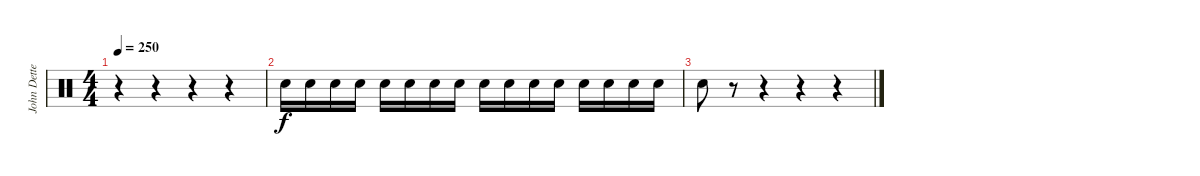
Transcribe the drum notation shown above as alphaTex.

\track ("John Dette" "John Dette") {instrument percussion}
\staff {score}
\articulation defaults
\ts (4 4)
\tempo 250
\clef neutral
\ks c
r.4{dy f} r.4 r.4 r.4 |
"Snare (hit) 2".16 "Snare (hit) 2".16 "Snare (hit) 2".16 "Snare (hit) 2".16 "Snare (hit) 2".16 "Snare (hit) 2".16 "Snare (hit) 2".16 "Snare (hit) 2".16 "Snare (hit) 2".16 "Snare (hit) 2".16 "Snare (hit) 2".16 "Snare (hit) 2".16 "Snare (hit) 2".16 "Snare (hit) 2".16 "Snare (hit) 2".16 "Snare (hit) 2".16 |
"Snare (hit) 2".8 r.8 r.4 r.4 r.4
